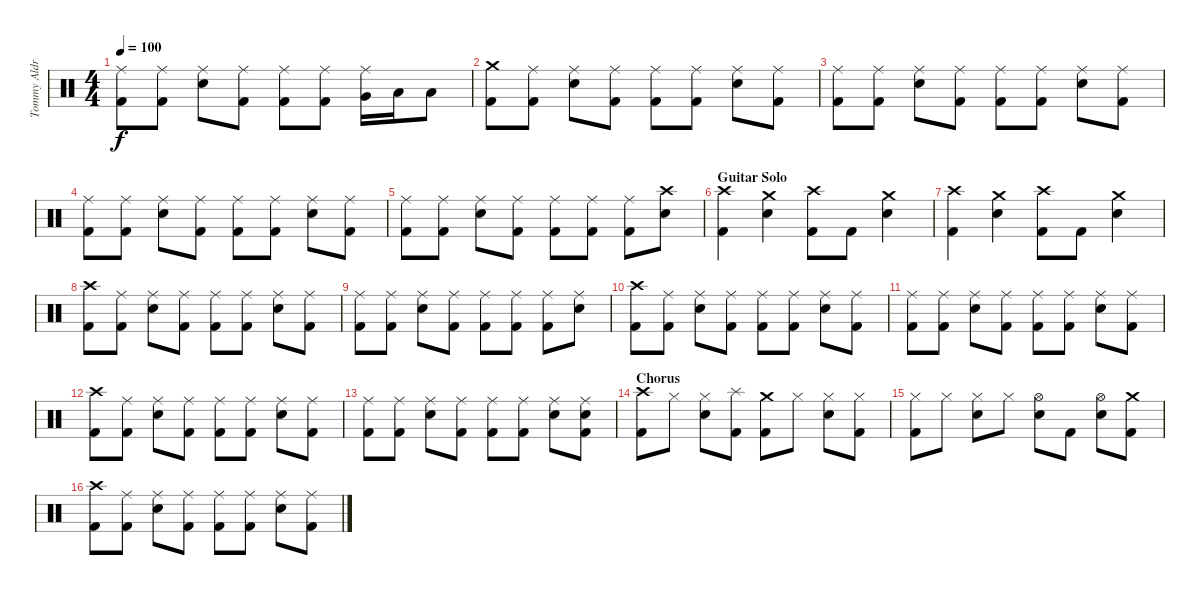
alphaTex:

\track ("Tommy Aldridge" "Tommy Aldr") {instrument percussion}
\staff {score}
\articulation defaults
\ts (4 4)
\tempo 100
\clef neutral
\ks aminor
("Ride (middle)" "Kick (hit) 2").8{dy f} ("Ride (middle)" "Kick (hit) 2").8 ("Ride (middle)" "Electric Snare (hit)").8 ("Ride (middle)" "Kick (hit) 2").8 ("Ride (middle)" "Kick (hit) 2").8 ("Ride (middle)" "Kick (hit) 2").8 ("Ride (middle)" "Very Low Tom (hit)").16 "Low Floor Tom (hit)".16 "Low Floor Tom (hit)".8 |
("Crash medium (hit)" "Kick (hit) 2").8 ("Ride (middle)" "Kick (hit) 2").8 ("Ride (middle)" "Electric Snare (hit)").8 ("Ride (middle)" "Kick (hit) 2").8 ("Ride (middle)" "Kick (hit) 2").8 ("Ride (middle)" "Kick (hit) 2").8 ("Ride (middle)" "Electric Snare (hit)").8 ("Ride (middle)" "Kick (hit) 2").8 |
("Ride (middle)" "Kick (hit) 2").8 ("Ride (middle)" "Kick (hit) 2").8 ("Ride (middle)" "Electric Snare (hit)").8 ("Ride (middle)" "Kick (hit) 2").8 ("Ride (middle)" "Kick (hit) 2").8 ("Ride (middle)" "Kick (hit) 2").8 ("Ride (middle)" "Electric Snare (hit)").8 ("Ride (middle)" "Kick (hit) 2").8 |
("Ride (middle)" "Kick (hit) 2").8 ("Ride (middle)" "Kick (hit) 2").8 ("Ride (middle)" "Electric Snare (hit)").8 ("Ride (middle)" "Kick (hit) 2").8 ("Ride (middle)" "Kick (hit) 2").8 ("Ride (middle)" "Kick (hit) 2").8 ("Ride (middle)" "Electric Snare (hit)").8 ("Ride (middle)" "Kick (hit) 2").8 |
("Ride (middle)" "Kick (hit) 2").8 ("Ride (middle)" "Kick (hit) 2").8 ("Ride (middle)" "Electric Snare (hit)").8 ("Ride (middle)" "Kick (hit) 2").8 ("Ride (middle)" "Kick (hit) 2").8 ("Ride (middle)" "Kick (hit) 2").8 ("Ride (middle)" "Kick (hit) 2").8 ("Crash high (hit)" "Electric Snare (hit)").8 |
\section ("" "Guitar Solo")
("Crash high (hit)" "Kick (hit) 2").4 ("Crash medium (hit)" "Electric Snare (hit)").4 ("Crash high (hit)" "Kick (hit) 2").8 "Kick (hit) 2".8 ("Crash medium (hit)" "Electric Snare (hit)").4 |
("Crash high (hit)" "Kick (hit) 2").4 ("Crash medium (hit)" "Electric Snare (hit)").4 ("Crash high (hit)" "Kick (hit) 2").8 "Kick (hit) 2".8 ("Crash medium (hit)" "Electric Snare (hit)").4 |
("Crash high (hit)" "Kick (hit) 2").8 ("Ride (middle)" "Kick (hit) 2").8 ("Ride (middle)" "Electric Snare (hit)").8 ("Ride (middle)" "Kick (hit) 2").8 ("Ride (middle)" "Kick (hit) 2").8 ("Ride (middle)" "Kick (hit) 2").8 ("Ride (middle)" "Electric Snare (hit)").8 ("Ride (middle)" "Kick (hit) 2").8 |
("Ride (middle)" "Kick (hit) 2").8 ("Ride (middle)" "Kick (hit) 2").8 ("Ride (middle)" "Electric Snare (hit)").8 ("Ride (middle)" "Kick (hit) 2").8 ("Ride (middle)" "Kick (hit) 2").8 ("Ride (middle)" "Kick (hit) 2").8 ("Ride (middle)" "Kick (hit) 2").8 ("Ride (middle)" "Electric Snare (hit)").8 |
("Crash high (hit)" "Kick (hit) 2").8 ("Ride (middle)" "Kick (hit) 2").8 ("Ride (middle)" "Electric Snare (hit)").8 ("Ride (middle)" "Kick (hit) 2").8 ("Ride (middle)" "Kick (hit) 2").8 ("Ride (middle)" "Kick (hit) 2").8 ("Ride (middle)" "Electric Snare (hit)").8 ("Ride (middle)" "Kick (hit) 2").8 |
("Ride (middle)" "Kick (hit) 2").8 ("Ride (middle)" "Kick (hit) 2").8 ("Ride (middle)" "Electric Snare (hit)").8 ("Ride (middle)" "Kick (hit) 2").8 ("Ride (middle)" "Kick (hit) 2").8 ("Ride (middle)" "Kick (hit) 2").8 ("Ride (middle)" "Electric Snare (hit)").8 ("Ride (middle)" "Kick (hit) 2").8 |
("Crash high (hit)" "Kick (hit) 2").8 ("Ride (middle)" "Kick (hit) 2").8 ("Ride (middle)" "Electric Snare (hit)").8 ("Ride (middle)" "Kick (hit) 2").8 ("Ride (middle)" "Kick (hit) 2").8 ("Ride (middle)" "Kick (hit) 2").8 ("Ride (middle)" "Electric Snare (hit)").8 ("Ride (middle)" "Kick (hit) 2").8 |
("Ride (middle)" "Kick (hit) 2").8 ("Ride (middle)" "Kick (hit) 2").8 ("Ride (middle)" "Electric Snare (hit)").8 ("Ride (middle)" "Kick (hit) 2").8 ("Ride (middle)" "Kick (hit) 2").8 ("Ride (middle)" "Kick (hit) 2").8 ("Ride (middle)" "Electric Snare (hit)").8 ("Ride (middle)" "Electric Snare (hit)" "Kick (hit) 2").8 |
\section ("" "Chorus")
("Crash high (hit)" "Kick (hit) 2").8 "Hi-Hat (closed)".8 ("Hi-Hat (closed)" "Electric Snare (hit)").8 ("Splash (hit)" "Kick (hit) 2").8 ("Crash medium (hit)" "Kick (hit) 2").8 "Hi-Hat (closed)".8 ("Hi-Hat (closed)" "Electric Snare (hit)").8 ("Hi-Hat (closed)" "Kick (hit) 2").8 |
("Hi-Hat (closed)" "Kick (hit) 2").8 "Hi-Hat (closed)".8 ("Hi-Hat (closed)" "Electric Snare (hit)").8 "Hi-Hat (closed)".8 ("Hi-Hat (open)" "Electric Snare (hit)").8 "Kick (hit) 2".8 ("Hi-Hat (open)" "Electric Snare (hit)").8 ("Crash medium (hit)" "Kick (hit) 2").8 |
("Crash high (hit)" "Kick (hit) 2").8 ("Ride (middle)" "Kick (hit) 2").8 ("Ride (middle)" "Electric Snare (hit)").8 ("Ride (middle)" "Kick (hit) 2").8 ("Ride (middle)" "Kick (hit) 2").8 ("Ride (middle)" "Kick (hit) 2").8 ("Ride (middle)" "Electric Snare (hit)").8 ("Ride (middle)" "Kick (hit) 2").8
